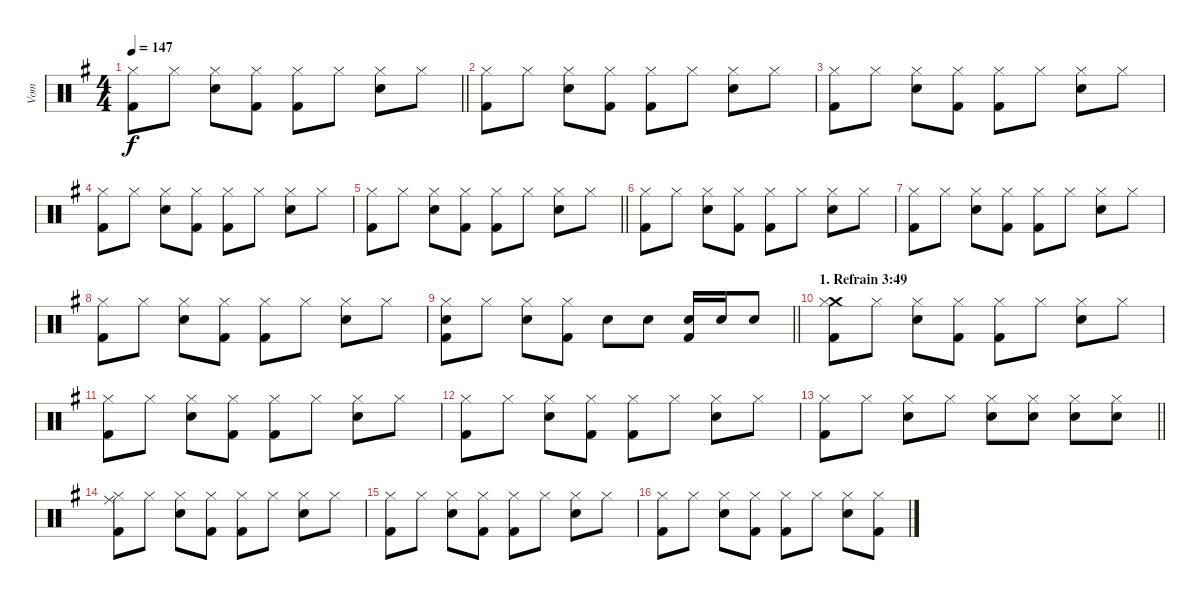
\track ("Vom" "Vom") {instrument percussion}
\staff {score}
\articulation defaults
\ts (4 4)
\tempo 147
\clef neutral
\barLineRight lightlight
\ks g
("Hi-Hat (closed)" "Kick (hit) 2").8{dy f} "Hi-Hat (closed)".8 ("Hi-Hat (closed)" "Snare (hit) 2").8 ("Hi-Hat (closed)" "Kick (hit) 2").8 ("Hi-Hat (closed)" "Kick (hit) 2").8 "Hi-Hat (closed)".8 ("Hi-Hat (closed)" "Snare (hit) 2").8 "Hi-Hat (closed)".8 |
("Hi-Hat (closed)" "Kick (hit) 2").8 "Hi-Hat (closed)".8 ("Hi-Hat (closed)" "Snare (hit) 2").8 ("Hi-Hat (closed)" "Kick (hit) 2").8 ("Hi-Hat (closed)" "Kick (hit) 2").8 "Hi-Hat (closed)".8 ("Hi-Hat (closed)" "Snare (hit) 2").8 "Hi-Hat (closed)".8 |
("Hi-Hat (closed)" "Kick (hit) 2").8 "Hi-Hat (closed)".8 ("Hi-Hat (closed)" "Snare (hit) 2").8 ("Hi-Hat (closed)" "Kick (hit) 2").8 ("Hi-Hat (closed)" "Kick (hit) 2").8 "Hi-Hat (closed)".8 ("Hi-Hat (closed)" "Snare (hit) 2").8 "Hi-Hat (closed)".8 |
("Hi-Hat (closed)" "Kick (hit) 2").8 "Hi-Hat (closed)".8 ("Hi-Hat (closed)" "Snare (hit) 2").8 ("Hi-Hat (closed)" "Kick (hit) 2").8 ("Hi-Hat (closed)" "Kick (hit) 2").8 "Hi-Hat (closed)".8 ("Hi-Hat (closed)" "Snare (hit) 2").8 "Hi-Hat (closed)".8 |
\barLineRight lightlight
("Hi-Hat (closed)" "Kick (hit) 2").8 "Hi-Hat (closed)".8 ("Hi-Hat (closed)" "Snare (hit) 2").8 ("Hi-Hat (closed)" "Kick (hit) 2").8 ("Hi-Hat (closed)" "Kick (hit) 2").8 "Hi-Hat (closed)".8 ("Hi-Hat (closed)" "Snare (hit) 2").8 "Hi-Hat (closed)".8 |
("Hi-Hat (closed)" "Kick (hit) 2").8 "Hi-Hat (closed)".8 ("Hi-Hat (closed)" "Snare (hit) 2").8 ("Hi-Hat (closed)" "Kick (hit) 2").8 ("Hi-Hat (closed)" "Kick (hit) 2").8 "Hi-Hat (closed)".8 ("Hi-Hat (closed)" "Snare (hit) 2").8 "Hi-Hat (closed)".8 |
("Hi-Hat (closed)" "Kick (hit) 2").8 "Hi-Hat (closed)".8 ("Hi-Hat (closed)" "Snare (hit) 2").8 ("Hi-Hat (closed)" "Kick (hit) 2").8 ("Hi-Hat (closed)" "Kick (hit) 2").8 "Hi-Hat (closed)".8 ("Hi-Hat (closed)" "Snare (hit) 2").8 "Hi-Hat (closed)".8 |
("Hi-Hat (closed)" "Kick (hit) 2").8 "Hi-Hat (closed)".8 ("Hi-Hat (closed)" "Snare (hit) 2").8 ("Hi-Hat (closed)" "Kick (hit) 2").8 ("Hi-Hat (closed)" "Kick (hit) 2").8 "Hi-Hat (closed)".8 ("Hi-Hat (closed)" "Snare (hit) 2").8 "Hi-Hat (closed)".8 |
\barLineRight lightlight
("Hi-Hat (closed)" "Snare (hit) 2" "Kick (hit) 2").8 "Hi-Hat (closed)".8 ("Hi-Hat (closed)" "Snare (hit) 2").8 ("Hi-Hat (closed)" "Kick (hit) 2").8 "Snare (hit) 2".8 "Snare (hit) 2".8 ("Snare (hit) 2" "Kick (hit) 2").16 "Snare (hit) 2".16 "Snare (hit) 2".8 |
\section ("" "1. Refrain 3:49")
("Crash medium (hit)" "Hi-Hat (closed)" "Kick (hit) 2").8 "Hi-Hat (closed)".8 ("Hi-Hat (closed)" "Snare (hit) 2").8 ("Hi-Hat (closed)" "Kick (hit) 2").8 ("Hi-Hat (closed)" "Kick (hit) 2").8 "Hi-Hat (closed)".8 ("Hi-Hat (closed)" "Snare (hit) 2").8 "Hi-Hat (closed)".8 |
("Hi-Hat (closed)" "Kick (hit) 2").8 "Hi-Hat (closed)".8 ("Hi-Hat (closed)" "Snare (hit) 2").8 ("Hi-Hat (closed)" "Kick (hit) 2").8 ("Hi-Hat (closed)" "Kick (hit) 2").8 "Hi-Hat (closed)".8 ("Hi-Hat (closed)" "Snare (hit) 2").8 "Hi-Hat (closed)".8 |
("Hi-Hat (closed)" "Kick (hit) 2").8 "Hi-Hat (closed)".8 ("Hi-Hat (closed)" "Snare (hit) 2").8 ("Hi-Hat (closed)" "Kick (hit) 2").8 ("Hi-Hat (closed)" "Kick (hit) 2").8 "Hi-Hat (closed)".8 ("Hi-Hat (closed)" "Snare (hit) 2").8 "Hi-Hat (closed)".8 |
\barLineRight lightlight
("Hi-Hat (closed)" "Kick (hit) 2").8 "Hi-Hat (closed)".8 ("Hi-Hat (closed)" "Snare (hit) 2").8 "Hi-Hat (closed)".8 ("Hi-Hat (closed)" "Snare (hit) 2").8 ("Hi-Hat (closed)" "Snare (hit) 2").8 ("Hi-Hat (closed)" "Snare (hit) 2").8 ("Hi-Hat (closed)" "Snare (hit) 2").8 |
("Ride (middle)" "Hi-Hat (closed)" "Kick (hit) 2").8 "Hi-Hat (closed)".8 ("Hi-Hat (closed)" "Snare (hit) 2").8 ("Hi-Hat (closed)" "Kick (hit) 2").8 ("Hi-Hat (closed)" "Kick (hit) 2").8 "Hi-Hat (closed)".8 ("Hi-Hat (closed)" "Snare (hit) 2").8 "Hi-Hat (closed)".8 |
("Hi-Hat (closed)" "Kick (hit) 2").8 "Hi-Hat (closed)".8 ("Hi-Hat (closed)" "Snare (hit) 2").8 ("Hi-Hat (closed)" "Kick (hit) 2").8 ("Hi-Hat (closed)" "Kick (hit) 2").8 "Hi-Hat (closed)".8 ("Hi-Hat (closed)" "Snare (hit) 2").8 "Hi-Hat (closed)".8 |
("Hi-Hat (closed)" "Kick (hit) 2").8 "Hi-Hat (closed)".8 ("Hi-Hat (closed)" "Snare (hit) 2").8 ("Hi-Hat (closed)" "Kick (hit) 2").8 ("Hi-Hat (closed)" "Kick (hit) 2").8 "Hi-Hat (closed)".8 ("Hi-Hat (closed)" "Snare (hit) 2").8 ("Hi-Hat (closed)" "Kick (hit) 2").8
